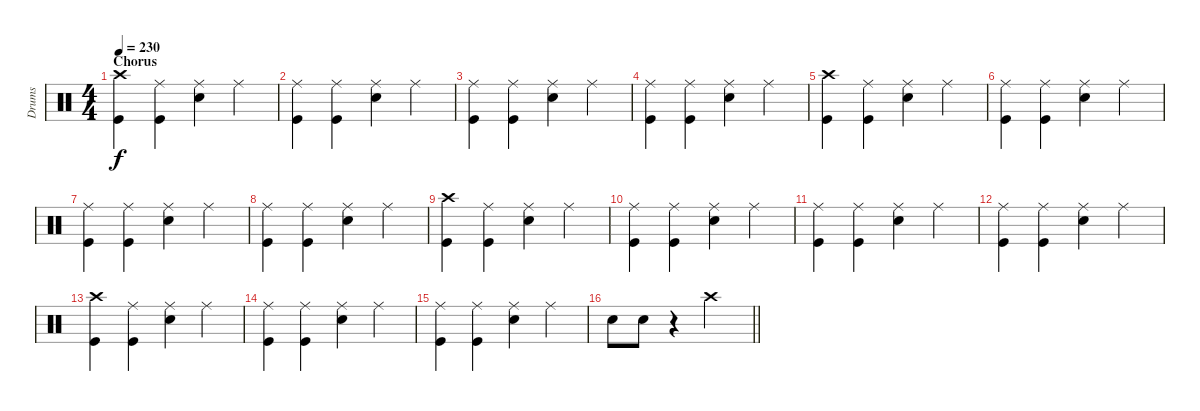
\track ("Drums" "Drums") {instrument percussion}
\staff {score}
\articulation defaults
\ts (4 4)
\section ("" "Chorus")
\tempo 230
\clef neutral
\ks c
("Crash high (hit)" "Kick (hit)").4{dy f} ("Ride (middle)" "Kick (hit)").4 ("Ride (middle)" "Snare (hit) 2").4 "Ride (middle)".4 |
("Ride (middle)" "Kick (hit)").4 ("Ride (middle)" "Kick (hit)").4 ("Ride (middle)" "Snare (hit) 2").4 "Ride (middle)".4 |
("Ride (middle)" "Kick (hit)").4 ("Ride (middle)" "Kick (hit)").4 ("Ride (middle)" "Snare (hit) 2").4 "Ride (middle)".4 |
("Ride (middle)" "Kick (hit)").4 ("Ride (middle)" "Kick (hit)").4 ("Ride (middle)" "Snare (hit) 2").4 "Ride (middle)".4 |
("Crash high (hit)" "Kick (hit)").4 ("Ride (middle)" "Kick (hit)").4 ("Ride (middle)" "Snare (hit) 2").4 "Ride (middle)".4 |
("Ride (middle)" "Kick (hit)").4 ("Ride (middle)" "Kick (hit)").4 ("Ride (middle)" "Snare (hit) 2").4 "Ride (middle)".4 |
("Ride (middle)" "Kick (hit)").4 ("Ride (middle)" "Kick (hit)").4 ("Ride (middle)" "Snare (hit) 2").4 "Ride (middle)".4 |
("Ride (middle)" "Kick (hit)").4 ("Ride (middle)" "Kick (hit)").4 ("Ride (middle)" "Snare (hit) 2").4 "Ride (middle)".4 |
("Crash high (hit)" "Kick (hit)").4 ("Ride (middle)" "Kick (hit)").4 ("Ride (middle)" "Snare (hit) 2").4 "Ride (middle)".4 |
("Ride (middle)" "Kick (hit)").4 ("Ride (middle)" "Kick (hit)").4 ("Ride (middle)" "Snare (hit) 2").4 "Ride (middle)".4 |
("Ride (middle)" "Kick (hit)").4 ("Ride (middle)" "Kick (hit)").4 ("Ride (middle)" "Snare (hit) 2").4 "Ride (middle)".4 |
("Ride (middle)" "Kick (hit)").4 ("Ride (middle)" "Kick (hit)").4 ("Ride (middle)" "Snare (hit) 2").4 "Ride (middle)".4 |
("Crash high (hit)" "Kick (hit)").4 ("Ride (middle)" "Kick (hit)").4 ("Ride (middle)" "Snare (hit) 2").4 "Ride (middle)".4 |
("Ride (middle)" "Kick (hit)").4 ("Ride (middle)" "Kick (hit)").4 ("Ride (middle)" "Snare (hit) 2").4 "Ride (middle)".4 |
("Ride (middle)" "Kick (hit)").4 ("Ride (middle)" "Kick (hit)").4 ("Ride (middle)" "Snare (hit) 2").4 "Ride (middle)".4 |
\barLineRight lightlight "Snare (hit) 2".8 "Snare (hit) 2".8
r.4 "Crash high (hit)".2
